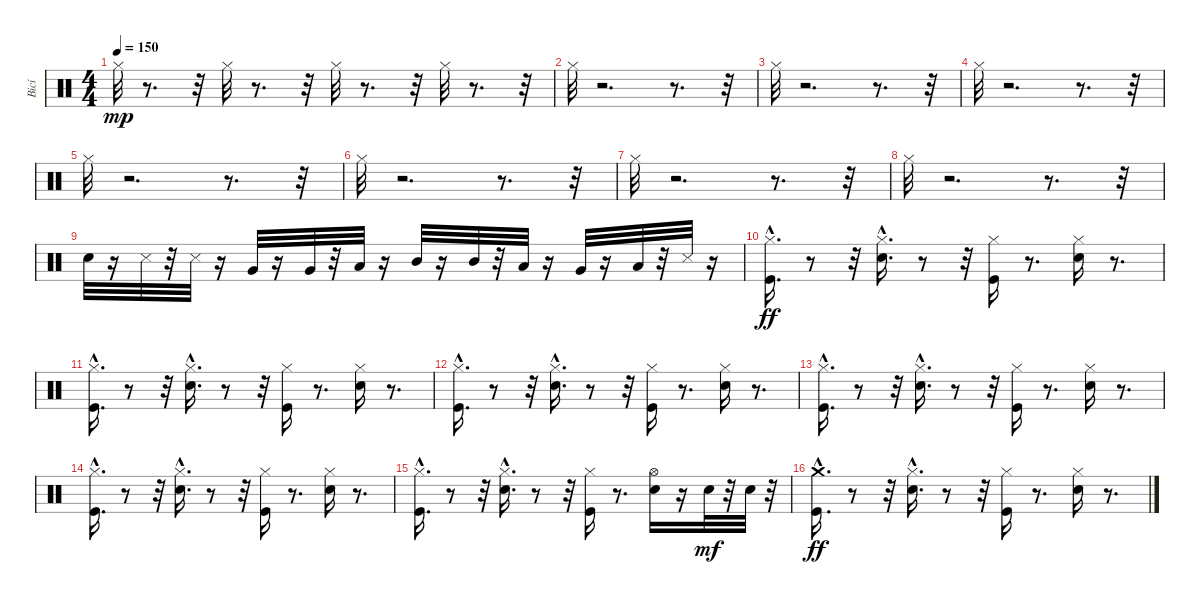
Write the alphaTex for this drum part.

\track ("Bicí" "Bicí") {instrument percussion}
\staff {score}
\articulation defaults
\ts (4 4)
\tempo 150
\clef neutral
\ks c "Hi-Hat (closed)".32{dy mp}
r.8{d} r.32 "Hi-Hat (closed)".32 r.8{d} r.32 "Hi-Hat (closed)".32 r.8{d} r.32 "Hi-Hat (closed)".32 r.8{d} r.32 |
"Hi-Hat (closed)".32 r.2{d} r.8{d} r.32 |
"Hi-Hat (closed)".32 r.2{d} r.8{d} r.32 |
"Hi-Hat (closed)".32 r.2{d} r.8{d} r.32 |
"Hi-Hat (closed)".32 r.2{d} r.8{d} r.32 |
"Hi-Hat (closed)".32 r.2{d} r.8{d} r.32 |
"Hi-Hat (closed)".32 r.2{d} r.8{d} r.32 |
"Hi-Hat (closed)".32 r.2{d} r.8{d} r.32 |
"Snare (hit) 2".32 r.16 "Metronome (hit)".32 r.32 "Metronome (hit)".32 r.16 "Very Low Tom (hit)".32 r.16 "Very Low Tom (hit)".32 r.32 "Low Tom (hit)".32 r.16 "Mid Tom (hit)".32 r.16 "Mid Tom (hit)".32 r.32 "Low Tom (hit)".32 r.16 "Very Low Tom (hit)".32 r.16 "Low Floor Tom (hit)".32 r.32 "Metronome (hit)".32 r.16 |
("Hi-Hat (closed)"{hac} "Kick (hit)").16{d dy ff} r.8 r.32 ("Hi-Hat (closed)"{hac} "Snare (hit) 2").16{d} r.8 r.32 ("Kick (hit)" "Hi-Hat (closed)").16 r.8{d} ("Snare (hit) 2" "Hi-Hat (closed)").16 r.8{d} |
("Hi-Hat (closed)"{hac} "Kick (hit)").16{d} r.8 r.32 ("Hi-Hat (closed)"{hac} "Snare (hit) 2").16{d} r.8 r.32 ("Kick (hit)" "Hi-Hat (closed)").16 r.8{d} ("Snare (hit) 2" "Hi-Hat (closed)").16 r.8{d} |
("Hi-Hat (closed)"{hac} "Kick (hit)").16{d} r.8 r.32 ("Hi-Hat (closed)"{hac} "Snare (hit) 2").16{d} r.8 r.32 ("Kick (hit)" "Hi-Hat (closed)").16 r.8{d} ("Snare (hit) 2" "Hi-Hat (closed)").16 r.8{d} |
("Hi-Hat (closed)"{hac} "Kick (hit)").16{d} r.8 r.32 ("Hi-Hat (closed)"{hac} "Snare (hit) 2").16{d} r.8 r.32 ("Kick (hit)" "Hi-Hat (closed)").16 r.8{d} ("Snare (hit) 2" "Hi-Hat (closed)").16 r.8{d} |
("Hi-Hat (closed)"{hac} "Kick (hit)").16{d} r.8 r.32 ("Hi-Hat (closed)"{hac} "Snare (hit) 2").16{d} r.8 r.32 ("Kick (hit)" "Hi-Hat (closed)").16 r.8{d} ("Snare (hit) 2" "Hi-Hat (closed)").16 r.8{d} |
("Hi-Hat (closed)"{hac} "Kick (hit)").16{d} r.8 r.32 ("Hi-Hat (closed)"{hac} "Snare (hit) 2").16{d} r.8 r.32 ("Kick (hit)" "Hi-Hat (closed)").16 r.8{d} ("Snare (hit) 2" "Hi-Hat (open)").16 r.16 "Snare (hit) 2".32{dy mf} r.32 "Snare (hit) 2".32 r.32 |
("Crash medium (hit)"{hac} "Kick (hit)").16{d dy ff} r.8 r.32 ("Hi-Hat (closed)"{hac} "Snare (hit) 2").16{d} r.8 r.32 ("Kick (hit)" "Hi-Hat (closed)").16 r.8{d} ("Snare (hit) 2" "Hi-Hat (closed)").16 r.8{d}
